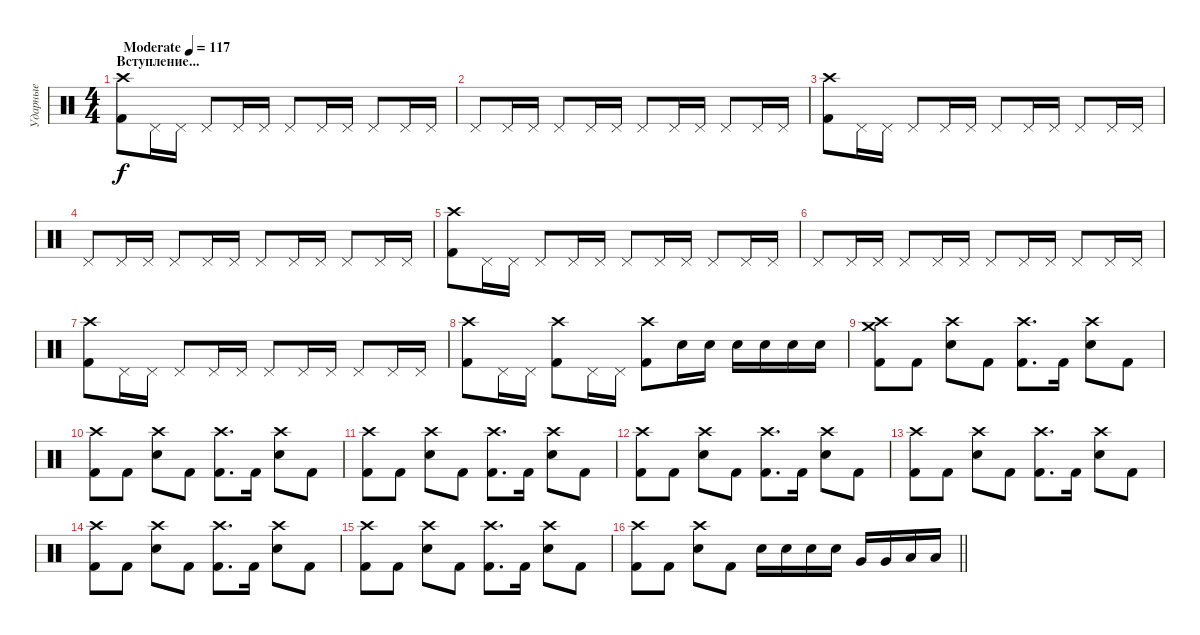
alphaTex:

\track ("Ударные" "Ударные") {instrument percussion}
\staff {score}
\articulation defaults
\ts (4 4)
\section ("" "Вступление...")
\tempo (117 "Moderate")
\clef neutral
\ks c
("Crash high (hit)" "Kick (hit) 2").8{dy f} "Pedal Hi-Hat (hit)".16 "Pedal Hi-Hat (hit)".16 "Pedal Hi-Hat (hit)".8 "Pedal Hi-Hat (hit)".16 "Pedal Hi-Hat (hit)".16 "Pedal Hi-Hat (hit)".8 "Pedal Hi-Hat (hit)".16 "Pedal Hi-Hat (hit)".16 "Pedal Hi-Hat (hit)".8 "Pedal Hi-Hat (hit)".16 "Pedal Hi-Hat (hit)".16 |
"Pedal Hi-Hat (hit)".8 "Pedal Hi-Hat (hit)".16 "Pedal Hi-Hat (hit)".16 "Pedal Hi-Hat (hit)".8 "Pedal Hi-Hat (hit)".16 "Pedal Hi-Hat (hit)".16 "Pedal Hi-Hat (hit)".8 "Pedal Hi-Hat (hit)".16 "Pedal Hi-Hat (hit)".16 "Pedal Hi-Hat (hit)".8 "Pedal Hi-Hat (hit)".16 "Pedal Hi-Hat (hit)".16 |
("Crash high (hit)" "Kick (hit) 2").8 "Pedal Hi-Hat (hit)".16 "Pedal Hi-Hat (hit)".16 "Pedal Hi-Hat (hit)".8 "Pedal Hi-Hat (hit)".16 "Pedal Hi-Hat (hit)".16 "Pedal Hi-Hat (hit)".8 "Pedal Hi-Hat (hit)".16 "Pedal Hi-Hat (hit)".16 "Pedal Hi-Hat (hit)".8 "Pedal Hi-Hat (hit)".16 "Pedal Hi-Hat (hit)".16 |
"Pedal Hi-Hat (hit)".8 "Pedal Hi-Hat (hit)".16 "Pedal Hi-Hat (hit)".16 "Pedal Hi-Hat (hit)".8 "Pedal Hi-Hat (hit)".16 "Pedal Hi-Hat (hit)".16 "Pedal Hi-Hat (hit)".8 "Pedal Hi-Hat (hit)".16 "Pedal Hi-Hat (hit)".16 "Pedal Hi-Hat (hit)".8 "Pedal Hi-Hat (hit)".16 "Pedal Hi-Hat (hit)".16 |
("Crash high (hit)" "Kick (hit) 2").8 "Pedal Hi-Hat (hit)".16 "Pedal Hi-Hat (hit)".16 "Pedal Hi-Hat (hit)".8 "Pedal Hi-Hat (hit)".16 "Pedal Hi-Hat (hit)".16 "Pedal Hi-Hat (hit)".8 "Pedal Hi-Hat (hit)".16 "Pedal Hi-Hat (hit)".16 "Pedal Hi-Hat (hit)".8 "Pedal Hi-Hat (hit)".16 "Pedal Hi-Hat (hit)".16 |
"Pedal Hi-Hat (hit)".8 "Pedal Hi-Hat (hit)".16 "Pedal Hi-Hat (hit)".16 "Pedal Hi-Hat (hit)".8 "Pedal Hi-Hat (hit)".16 "Pedal Hi-Hat (hit)".16 "Pedal Hi-Hat (hit)".8 "Pedal Hi-Hat (hit)".16 "Pedal Hi-Hat (hit)".16 "Pedal Hi-Hat (hit)".8 "Pedal Hi-Hat (hit)".16 "Pedal Hi-Hat (hit)".16 |
("Crash high (hit)" "Kick (hit) 2").8 "Pedal Hi-Hat (hit)".16 "Pedal Hi-Hat (hit)".16 "Pedal Hi-Hat (hit)".8 "Pedal Hi-Hat (hit)".16 "Pedal Hi-Hat (hit)".16 "Pedal Hi-Hat (hit)".8 "Pedal Hi-Hat (hit)".16 "Pedal Hi-Hat (hit)".16 "Pedal Hi-Hat (hit)".8 "Pedal Hi-Hat (hit)".16 "Pedal Hi-Hat (hit)".16 |
("Crash high (hit)" "Kick (hit) 2").8 "Pedal Hi-Hat (hit)".16 "Pedal Hi-Hat (hit)".16 ("Crash high (hit)" "Kick (hit) 2").8 "Pedal Hi-Hat (hit)".16 "Pedal Hi-Hat (hit)".16 ("Crash high (hit)" "Kick (hit) 2").8 "Electric Snare (hit)".16 "Electric Snare (hit)".16 "Electric Snare (hit)".16 "Electric Snare (hit)".16 "Electric Snare (hit)".16 "Electric Snare (hit)".16 |
("Crash medium (hit)" "Crash high (hit)" "Kick (hit) 2").8 "Kick (hit) 2".8 ("Crash high (hit)" "Electric Snare (hit)").8 "Kick (hit) 2".8 ("Crash high (hit)" "Kick (hit) 2").8{d} "Kick (hit) 2".16 ("Crash high (hit)" "Electric Snare (hit)").8 "Kick (hit) 2".8 |
("Crash high (hit)" "Kick (hit) 2").8 "Kick (hit) 2".8 ("Crash high (hit)" "Electric Snare (hit)").8 "Kick (hit) 2".8 ("Crash high (hit)" "Kick (hit) 2").8{d} "Kick (hit) 2".16 ("Crash high (hit)" "Electric Snare (hit)").8 "Kick (hit) 2".8 |
("Crash high (hit)" "Kick (hit) 2").8 "Kick (hit) 2".8 ("Crash high (hit)" "Electric Snare (hit)").8 "Kick (hit) 2".8 ("Crash high (hit)" "Kick (hit) 2").8{d} "Kick (hit) 2".16 ("Crash high (hit)" "Electric Snare (hit)").8 "Kick (hit) 2".8 |
("Crash high (hit)" "Kick (hit) 2").8 "Kick (hit) 2".8 ("Crash high (hit)" "Electric Snare (hit)").8 "Kick (hit) 2".8 ("Crash high (hit)" "Kick (hit) 2").8{d} "Kick (hit) 2".16 ("Crash high (hit)" "Electric Snare (hit)").8 "Kick (hit) 2".8 |
("Crash high (hit)" "Kick (hit) 2").8 "Kick (hit) 2".8 ("Crash high (hit)" "Electric Snare (hit)").8 "Kick (hit) 2".8 ("Crash high (hit)" "Kick (hit) 2").8{d} "Kick (hit) 2".16 ("Crash high (hit)" "Electric Snare (hit)").8 "Kick (hit) 2".8 |
("Crash high (hit)" "Kick (hit) 2").8 "Kick (hit) 2".8 ("Crash high (hit)" "Electric Snare (hit)").8 "Kick (hit) 2".8 ("Crash high (hit)" "Kick (hit) 2").8{d} "Kick (hit) 2".16 ("Crash high (hit)" "Electric Snare (hit)").8 "Kick (hit) 2".8 |
("Crash high (hit)" "Kick (hit) 2").8 "Kick (hit) 2".8 ("Crash high (hit)" "Electric Snare (hit)").8 "Kick (hit) 2".8 ("Crash high (hit)" "Kick (hit) 2").8{d} "Kick (hit) 2".16 ("Crash high (hit)" "Electric Snare (hit)").8 "Kick (hit) 2".8 |
\barLineRight lightlight
("Crash high (hit)" "Kick (hit) 2").8 "Kick (hit) 2".8 ("Crash high (hit)" "Electric Snare (hit)").8 "Kick (hit) 2".8 "Electric Snare (hit)".16 "Electric Snare (hit)".16 "Electric Snare (hit)".16 "Electric Snare (hit)".16 "Very Low Tom (hit)".16 "Very Low Tom (hit)".16 "Low Tom (hit)".16 "Low Tom (hit)".16
